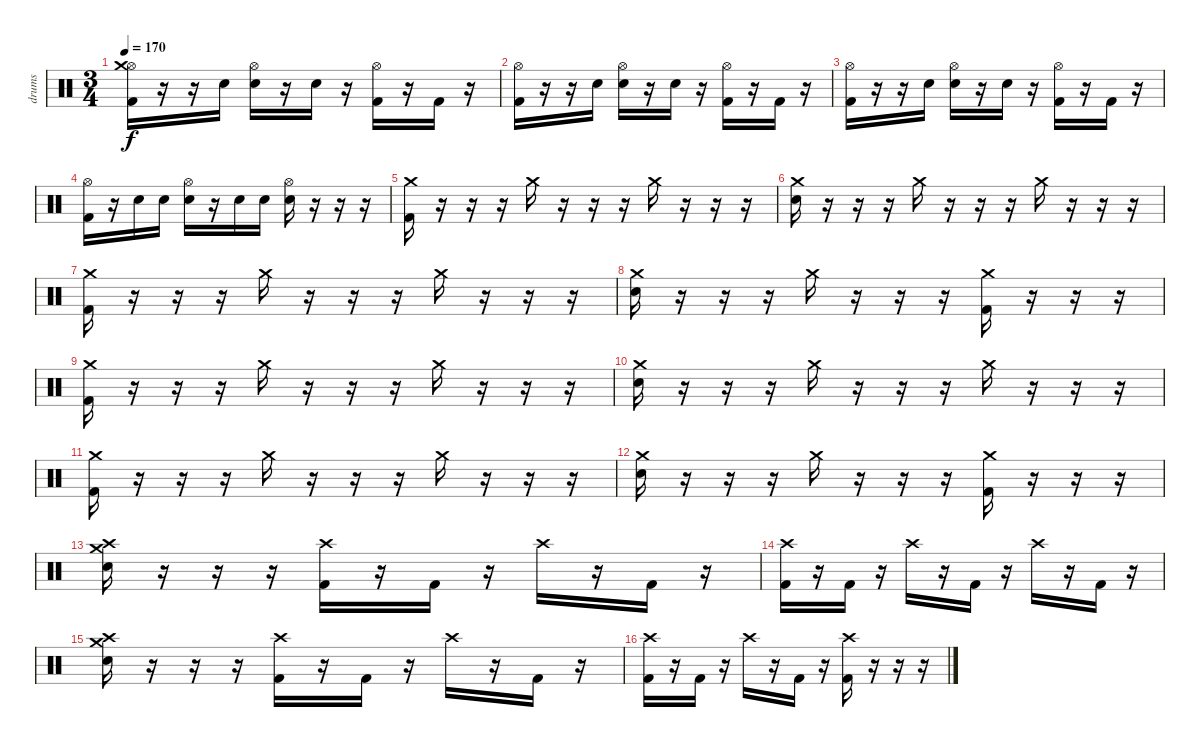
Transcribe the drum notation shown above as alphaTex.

\track ("drums" "drums") {instrument percussion}
\staff {score}
\articulation defaults
\ts (3 4)
\tempo 170
\clef neutral
\ks c
("Kick (hit) 2" "Hi-Hat (open)" "Crash medium (hit)").16{dy f} r.16 r.16 "Snare (hit) 2".16 ("Hi-Hat (open)" "Snare (hit) 2").16 r.16 "Snare (hit) 2".16 r.16 ("Hi-Hat (open)" "Kick (hit) 2").16 r.16 "Kick (hit) 2".16 r.16 |
("Kick (hit) 2" "Hi-Hat (open)").16 r.16 r.16 "Snare (hit) 2".16 ("Hi-Hat (open)" "Snare (hit) 2").16 r.16 "Snare (hit) 2".16 r.16 ("Hi-Hat (open)" "Kick (hit) 2").16 r.16 "Kick (hit) 2".16 r.16 |
("Kick (hit) 2" "Hi-Hat (open)").16 r.16 r.16 "Snare (hit) 2".16 ("Hi-Hat (open)" "Snare (hit) 2").16 r.16 "Snare (hit) 2".16 r.16 ("Hi-Hat (open)" "Kick (hit) 2").16 r.16 "Kick (hit) 2".16 r.16 |
("Hi-Hat (open)" "Kick (hit) 2").16 r.16 "Snare (hit) 2".16 "Snare (hit) 2".16 ("Hi-Hat (open)" "Snare (hit) 2").16 r.16 "Snare (hit) 2".16 "Snare (hit) 2".16 ("Snare (hit) 2" "Hi-Hat (open)").16 r.16 r.16 r.16 |
("Kick (hit) 2" "Crash medium (hit)").16 r.16 r.16 r.16 "Crash medium (hit)".16 r.16 r.16 r.16 "Crash medium (hit)".16 r.16 r.16 r.16 |
("Snare (hit) 2" "Crash medium (hit)").16 r.16 r.16 r.16 "Crash medium (hit)".16 r.16 r.16 r.16 "Crash medium (hit)".16 r.16 r.16 r.16 |
("Kick (hit) 2" "Crash medium (hit)").16 r.16 r.16 r.16 "Crash medium (hit)".16 r.16 r.16 r.16 "Crash medium (hit)".16 r.16 r.16 r.16 |
("Crash medium (hit)" "Snare (hit) 2").16 r.16 r.16 r.16 "Crash medium (hit)".16 r.16 r.16 r.16 ("Crash medium (hit)" "Kick (hit) 2").16 r.16 r.16 r.16 |
("Crash medium (hit)" "Kick (hit) 2").16 r.16 r.16 r.16 "Crash medium (hit)".16 r.16 r.16 r.16 "Crash medium (hit)".16 r.16 r.16 r.16 |
("Crash medium (hit)" "Snare (hit) 2").16 r.16 r.16 r.16 "Crash medium (hit)".16 r.16 r.16 r.16 "Crash medium (hit)".16 r.16 r.16 r.16 |
("Crash medium (hit)" "Kick (hit) 2").16 r.16 r.16 r.16 "Crash medium (hit)".16 r.16 r.16 r.16 "Crash medium (hit)".16 r.16 r.16 r.16 |
("Crash medium (hit)" "Snare (hit) 2").16 r.16 r.16 r.16 "Crash medium (hit)".16 r.16 r.16 r.16 ("Crash medium (hit)" "Kick (hit) 2").16 r.16 r.16 r.16 |
("Snare (hit) 2" "Crash high (hit)" "Crash medium (hit)").16 r.16 r.16 r.16 ("Crash high (hit)" "Kick (hit) 2").16 r.16 "Kick (hit) 2".16 r.16 "Crash high (hit)".16 r.16 "Kick (hit) 2".16 r.16 |
("Kick (hit) 2" "Crash high (hit)").16 r.16 "Kick (hit) 2".16 r.16 "Crash high (hit)".16 r.16 "Kick (hit) 2".16 r.16 "Crash high (hit)".16 r.16 "Kick (hit) 2".16 r.16 |
("Snare (hit) 2" "Crash high (hit)" "Crash medium (hit)").16 r.16 r.16 r.16 ("Crash high (hit)" "Kick (hit) 2").16 r.16 "Kick (hit) 2".16 r.16 "Crash high (hit)".16 r.16 "Kick (hit) 2".16 r.16 |
("Kick (hit) 2" "Crash high (hit)").16 r.16 "Kick (hit) 2".16 r.16 "Crash high (hit)".16 r.16 "Kick (hit) 2".16 r.16 ("Crash high (hit)" "Kick (hit) 2").16 r.16 r.16 r.16
